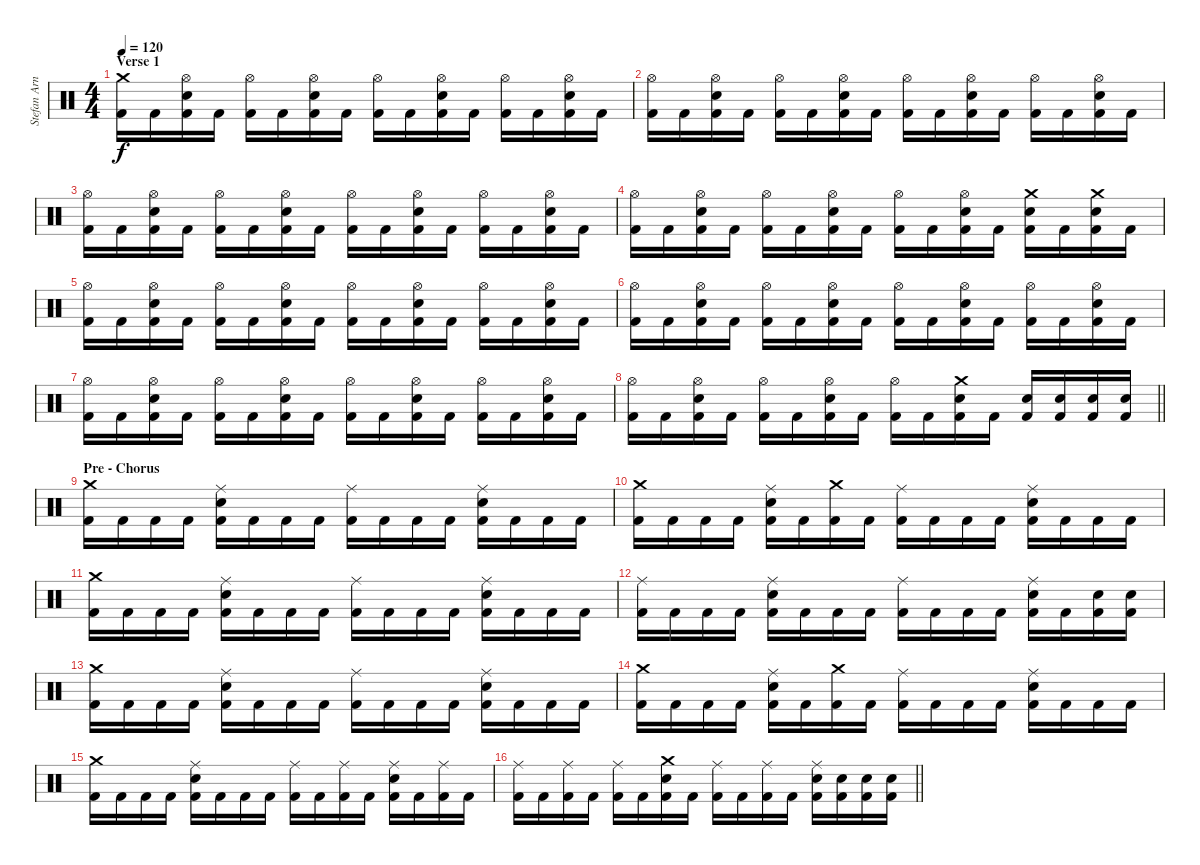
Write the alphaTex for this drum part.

\track ("Stefan Arnold" "Stefan Arn") {instrument percussion}
\staff {score}
\articulation defaults
\ts (4 4)
\section ("" "Verse 1")
\tempo 120
\clef neutral
\ks c
("Crash medium (hit)" "Kick (hit) 2").16{dy f} "Kick (hit) 2".16 ("Hi-Hat (open)" "Electric Snare (hit)" "Kick (hit) 2").16 "Kick (hit) 2".16 ("Hi-Hat (open)" "Kick (hit) 2").16 "Kick (hit) 2".16 ("Hi-Hat (open)" "Electric Snare (hit)" "Kick (hit) 2").16 "Kick (hit) 2".16 ("Hi-Hat (open)" "Kick (hit) 2").16 "Kick (hit) 2".16 ("Hi-Hat (open)" "Electric Snare (hit)" "Kick (hit) 2").16 "Kick (hit) 2".16 ("Hi-Hat (open)" "Kick (hit) 2").16 "Kick (hit) 2".16 ("Hi-Hat (open)" "Electric Snare (hit)" "Kick (hit) 2").16 "Kick (hit) 2".16 |
("Hi-Hat (open)" "Kick (hit) 2").16 "Kick (hit) 2".16 ("Hi-Hat (open)" "Electric Snare (hit)" "Kick (hit) 2").16 "Kick (hit) 2".16 ("Hi-Hat (open)" "Kick (hit) 2").16 "Kick (hit) 2".16 ("Hi-Hat (open)" "Electric Snare (hit)" "Kick (hit) 2").16 "Kick (hit) 2".16 ("Hi-Hat (open)" "Kick (hit) 2").16 "Kick (hit) 2".16 ("Hi-Hat (open)" "Electric Snare (hit)" "Kick (hit) 2").16 "Kick (hit) 2".16 ("Hi-Hat (open)" "Kick (hit) 2").16 "Kick (hit) 2".16 ("Hi-Hat (open)" "Electric Snare (hit)" "Kick (hit) 2").16 "Kick (hit) 2".16 |
("Hi-Hat (open)" "Kick (hit) 2").16 "Kick (hit) 2".16 ("Hi-Hat (open)" "Electric Snare (hit)" "Kick (hit) 2").16 "Kick (hit) 2".16 ("Hi-Hat (open)" "Kick (hit) 2").16 "Kick (hit) 2".16 ("Hi-Hat (open)" "Electric Snare (hit)" "Kick (hit) 2").16 "Kick (hit) 2".16 ("Hi-Hat (open)" "Kick (hit) 2").16 "Kick (hit) 2".16 ("Hi-Hat (open)" "Electric Snare (hit)" "Kick (hit) 2").16 "Kick (hit) 2".16 ("Hi-Hat (open)" "Kick (hit) 2").16 "Kick (hit) 2".16 ("Hi-Hat (open)" "Electric Snare (hit)" "Kick (hit) 2").16 "Kick (hit) 2".16 |
("Hi-Hat (open)" "Kick (hit) 2").16 "Kick (hit) 2".16 ("Hi-Hat (open)" "Electric Snare (hit)" "Kick (hit) 2").16 "Kick (hit) 2".16 ("Hi-Hat (open)" "Kick (hit) 2").16 "Kick (hit) 2".16 ("Hi-Hat (open)" "Electric Snare (hit)" "Kick (hit) 2").16 "Kick (hit) 2".16 ("Hi-Hat (open)" "Kick (hit) 2").16 "Kick (hit) 2".16 ("Hi-Hat (open)" "Electric Snare (hit)" "Kick (hit) 2").16 "Kick (hit) 2".16 ("Crash medium (hit)" "Electric Snare (hit)" "Kick (hit) 2").16 "Kick (hit) 2".16 ("Crash medium (hit)" "Electric Snare (hit)" "Kick (hit) 2").16 "Kick (hit) 2".16 |
("Hi-Hat (open)" "Kick (hit) 2").16 "Kick (hit) 2".16 ("Hi-Hat (open)" "Electric Snare (hit)" "Kick (hit) 2").16 "Kick (hit) 2".16 ("Hi-Hat (open)" "Kick (hit) 2").16 "Kick (hit) 2".16 ("Hi-Hat (open)" "Electric Snare (hit)" "Kick (hit) 2").16 "Kick (hit) 2".16 ("Hi-Hat (open)" "Kick (hit) 2").16 "Kick (hit) 2".16 ("Hi-Hat (open)" "Electric Snare (hit)" "Kick (hit) 2").16 "Kick (hit) 2".16 ("Hi-Hat (open)" "Kick (hit) 2").16 "Kick (hit) 2".16 ("Hi-Hat (open)" "Electric Snare (hit)" "Kick (hit) 2").16 "Kick (hit) 2".16 |
("Hi-Hat (open)" "Kick (hit) 2").16 "Kick (hit) 2".16 ("Hi-Hat (open)" "Electric Snare (hit)" "Kick (hit) 2").16 "Kick (hit) 2".16 ("Hi-Hat (open)" "Kick (hit) 2").16 "Kick (hit) 2".16 ("Hi-Hat (open)" "Electric Snare (hit)" "Kick (hit) 2").16 "Kick (hit) 2".16 ("Hi-Hat (open)" "Kick (hit) 2").16 "Kick (hit) 2".16 ("Hi-Hat (open)" "Electric Snare (hit)" "Kick (hit) 2").16 "Kick (hit) 2".16 ("Hi-Hat (open)" "Kick (hit) 2").16 "Kick (hit) 2".16 ("Hi-Hat (open)" "Electric Snare (hit)" "Kick (hit) 2").16 "Kick (hit) 2".16 |
("Hi-Hat (open)" "Kick (hit) 2").16 "Kick (hit) 2".16 ("Hi-Hat (open)" "Electric Snare (hit)" "Kick (hit) 2").16 "Kick (hit) 2".16 ("Hi-Hat (open)" "Kick (hit) 2").16 "Kick (hit) 2".16 ("Hi-Hat (open)" "Electric Snare (hit)" "Kick (hit) 2").16 "Kick (hit) 2".16 ("Hi-Hat (open)" "Kick (hit) 2").16 "Kick (hit) 2".16 ("Hi-Hat (open)" "Electric Snare (hit)" "Kick (hit) 2").16 "Kick (hit) 2".16 ("Hi-Hat (open)" "Kick (hit) 2").16 "Kick (hit) 2".16 ("Hi-Hat (open)" "Electric Snare (hit)" "Kick (hit) 2").16 "Kick (hit) 2".16 |
\barLineRight lightlight
("Hi-Hat (open)" "Kick (hit) 2").16 "Kick (hit) 2".16 ("Hi-Hat (open)" "Electric Snare (hit)" "Kick (hit) 2").16 "Kick (hit) 2".16 ("Hi-Hat (open)" "Kick (hit) 2").16 "Kick (hit) 2".16 ("Hi-Hat (open)" "Electric Snare (hit)" "Kick (hit) 2").16 "Kick (hit) 2".16 ("Hi-Hat (open)" "Kick (hit) 2").16 "Kick (hit) 2".16 ("Crash medium (hit)" "Electric Snare (hit)" "Kick (hit) 2").16 "Kick (hit) 2".16 ("Electric Snare (hit)" "Kick (hit) 2").16 ("Electric Snare (hit)" "Kick (hit) 2").16 ("Electric Snare (hit)" "Kick (hit) 2").16 ("Electric Snare (hit)" "Kick (hit) 2").16 |
\section ("" "Pre - Chorus")
("Crash medium (hit)" "Kick (hit) 2").16 "Kick (hit) 2".16 "Kick (hit) 2".16 "Kick (hit) 2".16 ("Ride (middle)" "Electric Snare (hit)" "Kick (hit) 2").16 "Kick (hit) 2".16 "Kick (hit) 2".16 "Kick (hit) 2".16 ("Ride (middle)" "Kick (hit) 2").16 "Kick (hit) 2".16 "Kick (hit) 2".16 "Kick (hit) 2".16 ("Ride (middle)" "Electric Snare (hit)" "Kick (hit) 2").16 "Kick (hit) 2".16 "Kick (hit) 2".16 "Kick (hit) 2".16 |
("Crash medium (hit)" "Kick (hit) 2").16 "Kick (hit) 2".16 "Kick (hit) 2".16 "Kick (hit) 2".16 ("Ride (middle)" "Electric Snare (hit)" "Kick (hit) 2").16 "Kick (hit) 2".16 ("Crash medium (hit)" "Kick (hit) 2").16 "Kick (hit) 2".16 ("Ride (middle)" "Kick (hit) 2").16 "Kick (hit) 2".16 "Kick (hit) 2".16 "Kick (hit) 2".16 ("Ride (middle)" "Electric Snare (hit)" "Kick (hit) 2").16 "Kick (hit) 2".16 "Kick (hit) 2".16 "Kick (hit) 2".16 |
("Crash medium (hit)" "Kick (hit) 2").16 "Kick (hit) 2".16 "Kick (hit) 2".16 "Kick (hit) 2".16 ("Ride (middle)" "Electric Snare (hit)" "Kick (hit) 2").16 "Kick (hit) 2".16 "Kick (hit) 2".16 "Kick (hit) 2".16 ("Ride (middle)" "Kick (hit) 2").16 "Kick (hit) 2".16 "Kick (hit) 2".16 "Kick (hit) 2".16 ("Ride (middle)" "Electric Snare (hit)" "Kick (hit) 2").16 "Kick (hit) 2".16 "Kick (hit) 2".16 "Kick (hit) 2".16 |
("Ride (middle)" "Kick (hit) 2").16 "Kick (hit) 2".16 "Kick (hit) 2".16 "Kick (hit) 2".16 ("Ride (middle)" "Electric Snare (hit)" "Kick (hit) 2").16 "Kick (hit) 2".16 "Kick (hit) 2".16 "Kick (hit) 2".16 ("Ride (middle)" "Kick (hit) 2").16 "Kick (hit) 2".16 "Kick (hit) 2".16 "Kick (hit) 2".16 ("Ride (middle)" "Electric Snare (hit)" "Kick (hit) 2").16 "Kick (hit) 2".16 ("Electric Snare (hit)" "Kick (hit) 2").16 ("Electric Snare (hit)" "Kick (hit) 2").16 |
("Crash medium (hit)" "Kick (hit) 2").16 "Kick (hit) 2".16 "Kick (hit) 2".16 "Kick (hit) 2".16 ("Ride (middle)" "Electric Snare (hit)" "Kick (hit) 2").16 "Kick (hit) 2".16 "Kick (hit) 2".16 "Kick (hit) 2".16 ("Ride (middle)" "Kick (hit) 2").16 "Kick (hit) 2".16 "Kick (hit) 2".16 "Kick (hit) 2".16 ("Ride (middle)" "Electric Snare (hit)" "Kick (hit) 2").16 "Kick (hit) 2".16 "Kick (hit) 2".16 "Kick (hit) 2".16 |
("Crash medium (hit)" "Kick (hit) 2").16 "Kick (hit) 2".16 "Kick (hit) 2".16 "Kick (hit) 2".16 ("Ride (middle)" "Electric Snare (hit)" "Kick (hit) 2").16 "Kick (hit) 2".16 ("Crash medium (hit)" "Kick (hit) 2").16 "Kick (hit) 2".16 ("Ride (middle)" "Kick (hit) 2").16 "Kick (hit) 2".16 "Kick (hit) 2".16 "Kick (hit) 2".16 ("Ride (middle)" "Electric Snare (hit)" "Kick (hit) 2").16 "Kick (hit) 2".16 "Kick (hit) 2".16 "Kick (hit) 2".16 |
("Crash medium (hit)" "Kick (hit) 2").16 "Kick (hit) 2".16 "Kick (hit) 2".16 "Kick (hit) 2".16 ("Ride (middle)" "Electric Snare (hit)" "Kick (hit) 2").16 "Kick (hit) 2".16 "Kick (hit) 2".16 "Kick (hit) 2".16 ("Ride (middle)" "Kick (hit) 2").16 "Kick (hit) 2".16 ("Ride (middle)" "Kick (hit) 2").16 "Kick (hit) 2".16 ("Ride (middle)" "Electric Snare (hit)" "Kick (hit) 2").16 "Kick (hit) 2".16 ("Ride (middle)" "Kick (hit) 2").16 "Kick (hit) 2".16 |
\barLineRight lightlight
("Ride (middle)" "Kick (hit) 2").16 "Kick (hit) 2".16 ("Ride (middle)" "Kick (hit) 2").16 "Kick (hit) 2".16 ("Ride (middle)" "Kick (hit) 2").16 "Kick (hit) 2".16 ("Crash medium (hit)" "Electric Snare (hit)" "Kick (hit) 2").16 "Kick (hit) 2".16 ("Ride (middle)" "Kick (hit) 2").16 "Kick (hit) 2".16 ("Ride (middle)" "Kick (hit) 2").16 "Kick (hit) 2".16 ("Ride (middle)" "Electric Snare (hit)" "Kick (hit) 2").16 ("Electric Snare (hit)" "Kick (hit) 2").16 ("Electric Snare (hit)" "Kick (hit) 2").16 ("Electric Snare (hit)" "Kick (hit) 2").16
